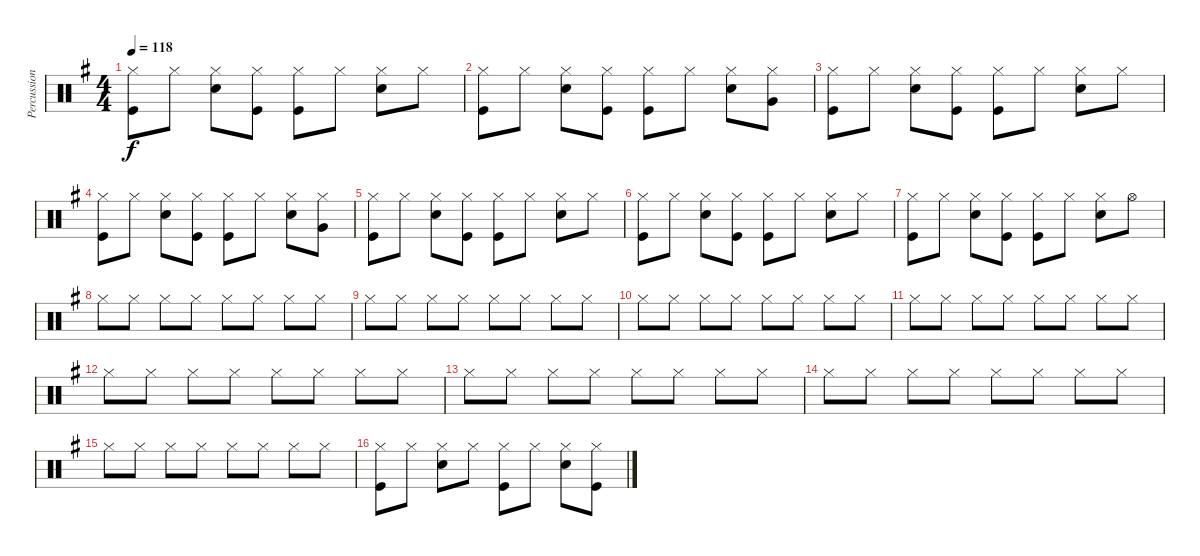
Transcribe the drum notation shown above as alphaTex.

\track ("Percussion" "Percussion") {instrument percussion}
\staff {score}
\articulation defaults
\ts (4 4)
\tempo 118
\clef neutral
\ks g
("Hi-Hat (closed)" "Kick (hit)").8{dy f} "Hi-Hat (closed)".8 ("Hi-Hat (closed)" "Electric Snare (hit)").8 ("Hi-Hat (closed)" "Kick (hit)").8 ("Hi-Hat (closed)" "Kick (hit)").8 "Hi-Hat (closed)".8 ("Hi-Hat (closed)" "Electric Snare (hit)").8 "Hi-Hat (closed)".8 |
("Hi-Hat (closed)" "Kick (hit)").8 "Hi-Hat (closed)".8 ("Hi-Hat (closed)" "Electric Snare (hit)").8 ("Hi-Hat (closed)" "Kick (hit)").8 ("Hi-Hat (closed)" "Kick (hit)").8 "Hi-Hat (closed)".8 ("Hi-Hat (closed)" "Electric Snare (hit)").8 ("Hi-Hat (closed)" "Very Low Tom (hit)").8 |
("Hi-Hat (closed)" "Kick (hit)").8 "Hi-Hat (closed)".8 ("Hi-Hat (closed)" "Electric Snare (hit)").8 ("Hi-Hat (closed)" "Kick (hit)").8 ("Hi-Hat (closed)" "Kick (hit)").8 "Hi-Hat (closed)".8 ("Hi-Hat (closed)" "Electric Snare (hit)").8 "Hi-Hat (closed)".8 |
("Hi-Hat (closed)" "Kick (hit)").8 "Hi-Hat (closed)".8 ("Hi-Hat (closed)" "Electric Snare (hit)").8 ("Hi-Hat (closed)" "Kick (hit)").8 ("Hi-Hat (closed)" "Kick (hit)").8 "Hi-Hat (closed)".8 ("Hi-Hat (closed)" "Electric Snare (hit)").8 ("Hi-Hat (closed)" "Very Low Tom (hit)").8 |
("Hi-Hat (closed)" "Kick (hit)").8 "Hi-Hat (closed)".8 ("Hi-Hat (closed)" "Electric Snare (hit)").8 ("Hi-Hat (closed)" "Kick (hit)").8 ("Hi-Hat (closed)" "Kick (hit)").8 "Hi-Hat (closed)".8 ("Hi-Hat (closed)" "Electric Snare (hit)").8 "Hi-Hat (closed)".8 |
("Hi-Hat (closed)" "Kick (hit)").8 "Hi-Hat (closed)".8 ("Hi-Hat (closed)" "Electric Snare (hit)").8 ("Hi-Hat (closed)" "Kick (hit)").8 ("Hi-Hat (closed)" "Kick (hit)").8 "Hi-Hat (closed)".8 ("Hi-Hat (closed)" "Electric Snare (hit)").8 "Hi-Hat (closed)".8 |
("Hi-Hat (closed)" "Kick (hit)").8 "Hi-Hat (closed)".8 ("Hi-Hat (closed)" "Electric Snare (hit)").8 ("Hi-Hat (closed)" "Kick (hit)").8 ("Hi-Hat (closed)" "Kick (hit)").8 "Hi-Hat (closed)".8 ("Hi-Hat (closed)" "Electric Snare (hit)").8 "Hi-Hat (open)".8 |
"Hi-Hat (closed)".8 "Hi-Hat (closed)".8 "Hi-Hat (closed)".8 "Hi-Hat (closed)".8 "Hi-Hat (closed)".8 "Hi-Hat (closed)".8 "Hi-Hat (closed)".8 "Hi-Hat (closed)".8 |
"Hi-Hat (closed)".8 "Hi-Hat (closed)".8 "Hi-Hat (closed)".8 "Hi-Hat (closed)".8 "Hi-Hat (closed)".8 "Hi-Hat (closed)".8 "Hi-Hat (closed)".8 "Hi-Hat (closed)".8 |
"Hi-Hat (closed)".8 "Hi-Hat (closed)".8 "Hi-Hat (closed)".8 "Hi-Hat (closed)".8 "Hi-Hat (closed)".8 "Hi-Hat (closed)".8 "Hi-Hat (closed)".8 "Hi-Hat (closed)".8 |
"Hi-Hat (closed)".8 "Hi-Hat (closed)".8 "Hi-Hat (closed)".8 "Hi-Hat (closed)".8 "Hi-Hat (closed)".8 "Hi-Hat (closed)".8 "Hi-Hat (closed)".8 "Hi-Hat (closed)".8 |
"Hi-Hat (closed)".8 "Hi-Hat (closed)".8 "Hi-Hat (closed)".8 "Hi-Hat (closed)".8 "Hi-Hat (closed)".8 "Hi-Hat (closed)".8 "Hi-Hat (closed)".8 "Hi-Hat (closed)".8 |
"Hi-Hat (closed)".8 "Hi-Hat (closed)".8 "Hi-Hat (closed)".8 "Hi-Hat (closed)".8 "Hi-Hat (closed)".8 "Hi-Hat (closed)".8 "Hi-Hat (closed)".8 "Hi-Hat (closed)".8 |
"Hi-Hat (closed)".8 "Hi-Hat (closed)".8 "Hi-Hat (closed)".8 "Hi-Hat (closed)".8 "Hi-Hat (closed)".8 "Hi-Hat (closed)".8 "Hi-Hat (closed)".8 "Hi-Hat (closed)".8 |
"Hi-Hat (closed)".8 "Hi-Hat (closed)".8 "Hi-Hat (closed)".8 "Hi-Hat (closed)".8 "Hi-Hat (closed)".8 "Hi-Hat (closed)".8 "Hi-Hat (closed)".8 "Hi-Hat (closed)".8 |
("Hi-Hat (closed)" "Kick (hit)").8 "Hi-Hat (closed)".8 ("Hi-Hat (closed)" "Electric Snare (hit)").8 "Hi-Hat (closed)".8 ("Hi-Hat (closed)" "Kick (hit)").8 "Hi-Hat (closed)".8 ("Hi-Hat (closed)" "Electric Snare (hit)").8 ("Hi-Hat (closed)" "Kick (hit)").8
